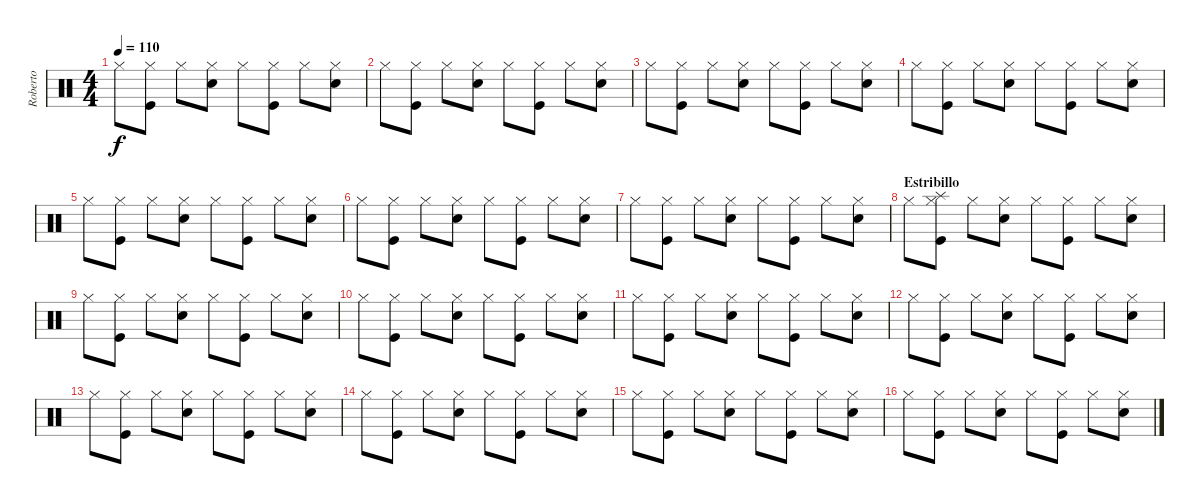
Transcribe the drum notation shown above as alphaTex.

\track ("Roberto" "Roberto") {instrument percussion}
\staff {score}
\articulation defaults
\ts (4 4)
\tempo 110
\clef neutral
\ks c "Hi-Hat (closed)".8{dy f volume 11}
("Hi-Hat (closed)" "Kick (hit)").8 "Hi-Hat (closed)".8 ("Hi-Hat (closed)" "Snare (hit) 2").8 "Hi-Hat (closed)".8 ("Hi-Hat (closed)" "Kick (hit)").8 "Hi-Hat (closed)".8 ("Hi-Hat (closed)" "Snare (hit) 2").8 |
"Hi-Hat (closed)".8{volume 11} ("Hi-Hat (closed)" "Kick (hit)").8 "Hi-Hat (closed)".8 ("Hi-Hat (closed)" "Snare (hit) 2").8 "Hi-Hat (closed)".8 ("Hi-Hat (closed)" "Kick (hit)").8 "Hi-Hat (closed)".8 ("Hi-Hat (closed)" "Snare (hit) 2").8 |
"Hi-Hat (closed)".8{volume 11} ("Hi-Hat (closed)" "Kick (hit)").8 "Hi-Hat (closed)".8 ("Hi-Hat (closed)" "Snare (hit) 2").8 "Hi-Hat (closed)".8 ("Hi-Hat (closed)" "Kick (hit)").8 "Hi-Hat (closed)".8 ("Hi-Hat (closed)" "Snare (hit) 2").8 |
"Hi-Hat (closed)".8{volume 11} ("Hi-Hat (closed)" "Kick (hit)").8 "Hi-Hat (closed)".8 ("Hi-Hat (closed)" "Snare (hit) 2").8 "Hi-Hat (closed)".8 ("Hi-Hat (closed)" "Kick (hit)").8 "Hi-Hat (closed)".8 ("Hi-Hat (closed)" "Snare (hit) 2").8 |
"Hi-Hat (closed)".8{volume 11} ("Hi-Hat (closed)" "Kick (hit)").8 "Hi-Hat (closed)".8 ("Hi-Hat (closed)" "Snare (hit) 2").8 "Hi-Hat (closed)".8 ("Hi-Hat (closed)" "Kick (hit)").8 "Hi-Hat (closed)".8 ("Hi-Hat (closed)" "Snare (hit) 2").8 |
"Hi-Hat (closed)".8{volume 11} ("Hi-Hat (closed)" "Kick (hit)").8 "Hi-Hat (closed)".8 ("Hi-Hat (closed)" "Snare (hit) 2").8 "Hi-Hat (closed)".8 ("Hi-Hat (closed)" "Kick (hit)").8 "Hi-Hat (closed)".8 ("Hi-Hat (closed)" "Snare (hit) 2").8 |
"Hi-Hat (closed)".8{volume 11} ("Hi-Hat (closed)" "Kick (hit)").8 "Hi-Hat (closed)".8 ("Hi-Hat (closed)" "Snare (hit) 2").8 "Hi-Hat (closed)".8 ("Hi-Hat (closed)" "Kick (hit)").8 "Hi-Hat (closed)".8 ("Hi-Hat (closed)" "Snare (hit) 2").8 |
\section ("" "Estribillo")
"Hi-Hat (closed)".8{volume 11} ("Splash (hit)" "Hi-Hat (closed)" "Kick (hit)").8 "Hi-Hat (closed)".8 ("Hi-Hat (closed)" "Snare (hit) 2").8 "Hi-Hat (closed)".8 ("Hi-Hat (closed)" "Kick (hit)").8 "Hi-Hat (closed)".8 ("Hi-Hat (closed)" "Snare (hit) 2").8 |
"Hi-Hat (closed)".8{volume 11} ("Hi-Hat (closed)" "Kick (hit)").8 "Hi-Hat (closed)".8 ("Hi-Hat (closed)" "Snare (hit) 2").8 "Hi-Hat (closed)".8 ("Hi-Hat (closed)" "Kick (hit)").8 "Hi-Hat (closed)".8 ("Hi-Hat (closed)" "Snare (hit) 2").8 |
"Hi-Hat (closed)".8{volume 11} ("Hi-Hat (closed)" "Kick (hit)").8 "Hi-Hat (closed)".8 ("Hi-Hat (closed)" "Snare (hit) 2").8 "Hi-Hat (closed)".8 ("Hi-Hat (closed)" "Kick (hit)").8 "Hi-Hat (closed)".8 ("Hi-Hat (closed)" "Snare (hit) 2").8 |
"Hi-Hat (closed)".8{volume 11} ("Hi-Hat (closed)" "Kick (hit)").8 "Hi-Hat (closed)".8 ("Hi-Hat (closed)" "Snare (hit) 2").8 "Hi-Hat (closed)".8 ("Hi-Hat (closed)" "Kick (hit)").8 "Hi-Hat (closed)".8 ("Hi-Hat (closed)" "Snare (hit) 2").8 |
"Hi-Hat (closed)".8{volume 11} ("Hi-Hat (closed)" "Kick (hit)").8 "Hi-Hat (closed)".8 ("Hi-Hat (closed)" "Snare (hit) 2").8 "Hi-Hat (closed)".8 ("Hi-Hat (closed)" "Kick (hit)").8 "Hi-Hat (closed)".8 ("Hi-Hat (closed)" "Snare (hit) 2").8 |
"Hi-Hat (closed)".8{volume 11} ("Hi-Hat (closed)" "Kick (hit)").8 "Hi-Hat (closed)".8 ("Hi-Hat (closed)" "Snare (hit) 2").8 "Hi-Hat (closed)".8 ("Hi-Hat (closed)" "Kick (hit)").8 "Hi-Hat (closed)".8 ("Hi-Hat (closed)" "Snare (hit) 2").8 |
"Hi-Hat (closed)".8{volume 11} ("Hi-Hat (closed)" "Kick (hit)").8 "Hi-Hat (closed)".8 ("Hi-Hat (closed)" "Snare (hit) 2").8 "Hi-Hat (closed)".8 ("Hi-Hat (closed)" "Kick (hit)").8 "Hi-Hat (closed)".8 ("Hi-Hat (closed)" "Snare (hit) 2").8 |
"Hi-Hat (closed)".8{volume 11} ("Hi-Hat (closed)" "Kick (hit)").8 "Hi-Hat (closed)".8 ("Hi-Hat (closed)" "Snare (hit) 2").8 "Hi-Hat (closed)".8 ("Hi-Hat (closed)" "Kick (hit)").8 "Hi-Hat (closed)".8 ("Hi-Hat (closed)" "Snare (hit) 2").8 |
"Hi-Hat (closed)".8{volume 11} ("Hi-Hat (closed)" "Kick (hit)").8 "Hi-Hat (closed)".8 ("Hi-Hat (closed)" "Snare (hit) 2").8 "Hi-Hat (closed)".8 ("Hi-Hat (closed)" "Kick (hit)").8 "Hi-Hat (closed)".8 ("Hi-Hat (closed)" "Snare (hit) 2").8
